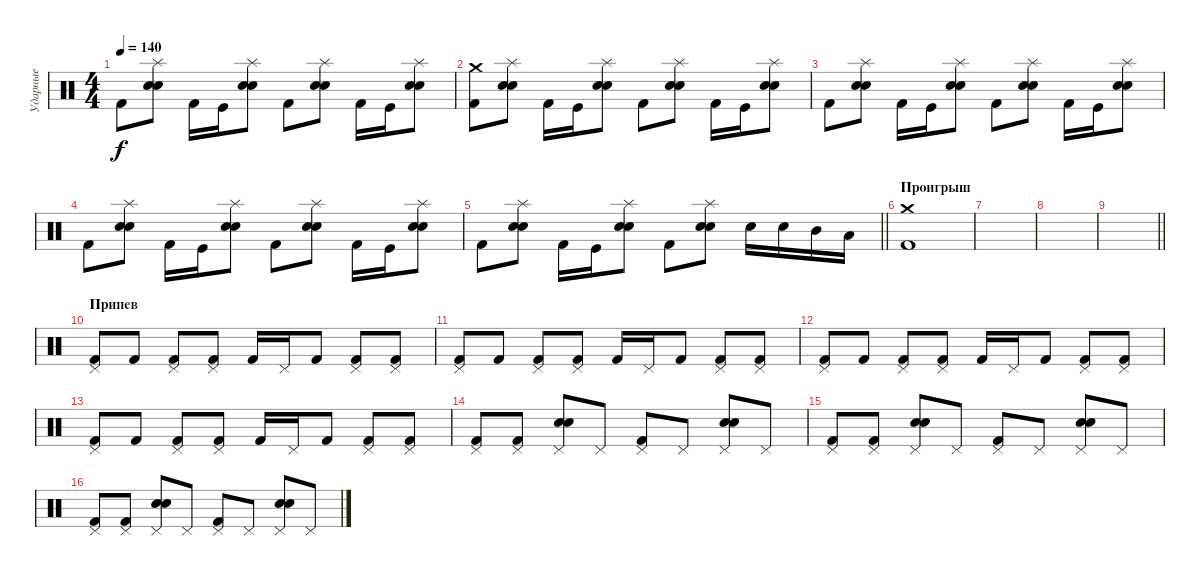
\track ("Ударные" "Ударные") {instrument percussion}
\staff {score}
\articulation defaults
\ts (4 4)
\tempo 140
\clef neutral
\ks c "Kick (hit) 2".8{dy f}
("Splash (hit)" "Electric Snare (hit)" "Snare (hit) 2").8 "Kick (hit) 2".16 "Kick (hit)".16 ("Splash (hit)" "Electric Snare (hit)" "Snare (hit) 2").8 "Kick (hit) 2".8 ("Splash (hit)" "Electric Snare (hit)" "Snare (hit) 2").8 "Kick (hit) 2".16 "Kick (hit)".16 ("Splash (hit)" "Electric Snare (hit)" "Snare (hit) 2").8 |
("Crash medium (hit)" "Kick (hit) 2").8 ("Splash (hit)" "Electric Snare (hit)" "Snare (hit) 2").8 "Kick (hit) 2".16 "Kick (hit)".16 ("Splash (hit)" "Electric Snare (hit)" "Snare (hit) 2").8 "Kick (hit) 2".8 ("Splash (hit)" "Electric Snare (hit)" "Snare (hit) 2").8 "Kick (hit) 2".16 "Kick (hit)".16 ("Splash (hit)" "Electric Snare (hit)" "Snare (hit) 2").8 |
"Kick (hit) 2".8 ("Splash (hit)" "Electric Snare (hit)" "Snare (hit) 2").8 "Kick (hit) 2".16 "Kick (hit)".16 ("Splash (hit)" "Electric Snare (hit)" "Snare (hit) 2").8 "Kick (hit) 2".8 ("Splash (hit)" "Electric Snare (hit)" "Snare (hit) 2").8 "Kick (hit) 2".16 "Kick (hit)".16 ("Splash (hit)" "Electric Snare (hit)" "Snare (hit) 2").8 |
"Kick (hit) 2".8 ("Splash (hit)" "Electric Snare (hit)" "Snare (hit) 2").8 "Kick (hit) 2".16 "Kick (hit)".16 ("Splash (hit)" "Electric Snare (hit)" "Snare (hit) 2").8 "Kick (hit) 2".8 ("Splash (hit)" "Electric Snare (hit)" "Snare (hit) 2").8 "Kick (hit) 2".16 "Kick (hit)".16 ("Splash (hit)" "Electric Snare (hit)" "Snare (hit) 2").8 |
\barLineRight lightlight "Kick (hit) 2".8
("Splash (hit)" "Electric Snare (hit)" "Snare (hit) 2").8 "Kick (hit) 2".16 "Kick (hit)".16 ("Splash (hit)" "Electric Snare (hit)" "Snare (hit) 2").8 "Kick (hit) 2".8 ("Splash (hit)" "Electric Snare (hit)" "Snare (hit) 2").8 "Electric Snare (hit)".16 "Electric Snare (hit)".16 "Mid Tom (hit)".16 "Low Tom (hit)".16 |
\section ("" "Проигрыш")
("Crash medium (hit)" "Kick (hit) 2").1 |
|
|
\barLineRight lightlight
|
\section ("" "Припев")
("Pedal Hi-Hat (hit)" "Kick (hit) 2").8 "Kick (hit) 2".8 ("Pedal Hi-Hat (hit)" "Kick (hit) 2").8 ("Pedal Hi-Hat (hit)" "Kick (hit) 2").8 "Kick (hit) 2".16 "Pedal Hi-Hat (hit)".16 "Kick (hit) 2".8 ("Pedal Hi-Hat (hit)" "Kick (hit) 2").8 ("Pedal Hi-Hat (hit)" "Kick (hit) 2").8 |
("Pedal Hi-Hat (hit)" "Kick (hit) 2").8 "Kick (hit) 2".8 ("Pedal Hi-Hat (hit)" "Kick (hit) 2").8 ("Pedal Hi-Hat (hit)" "Kick (hit) 2").8 "Kick (hit) 2".16 "Pedal Hi-Hat (hit)".16 "Kick (hit) 2".8 ("Pedal Hi-Hat (hit)" "Kick (hit) 2").8 ("Pedal Hi-Hat (hit)" "Kick (hit) 2").8 |
("Pedal Hi-Hat (hit)" "Kick (hit) 2").8 "Kick (hit) 2".8 ("Pedal Hi-Hat (hit)" "Kick (hit) 2").8 ("Pedal Hi-Hat (hit)" "Kick (hit) 2").8 "Kick (hit) 2".16 "Pedal Hi-Hat (hit)".16 "Kick (hit) 2".8 ("Pedal Hi-Hat (hit)" "Kick (hit) 2").8 ("Pedal Hi-Hat (hit)" "Kick (hit) 2").8 |
("Pedal Hi-Hat (hit)" "Kick (hit) 2").8 "Kick (hit) 2".8 ("Pedal Hi-Hat (hit)" "Kick (hit) 2").8 ("Pedal Hi-Hat (hit)" "Kick (hit) 2").8 "Kick (hit) 2".16 "Pedal Hi-Hat (hit)".16 "Kick (hit) 2".8 ("Pedal Hi-Hat (hit)" "Kick (hit) 2").8 ("Pedal Hi-Hat (hit)" "Kick (hit) 2").8 |
("Pedal Hi-Hat (hit)" "Kick (hit) 2").8 ("Pedal Hi-Hat (hit)" "Kick (hit) 2").8 ("Pedal Hi-Hat (hit)" "Electric Snare (hit)" "Snare (hit) 2").8 "Pedal Hi-Hat (hit)".8 ("Pedal Hi-Hat (hit)" "Kick (hit) 2").8 "Pedal Hi-Hat (hit)".8 ("Pedal Hi-Hat (hit)" "Electric Snare (hit)" "Snare (hit) 2").8 "Pedal Hi-Hat (hit)".8 |
("Pedal Hi-Hat (hit)" "Kick (hit) 2").8 ("Pedal Hi-Hat (hit)" "Kick (hit) 2").8 ("Pedal Hi-Hat (hit)" "Electric Snare (hit)" "Snare (hit) 2").8 "Pedal Hi-Hat (hit)".8 ("Pedal Hi-Hat (hit)" "Kick (hit) 2").8 "Pedal Hi-Hat (hit)".8 ("Pedal Hi-Hat (hit)" "Electric Snare (hit)" "Snare (hit) 2").8 "Pedal Hi-Hat (hit)".8 |
("Pedal Hi-Hat (hit)" "Kick (hit) 2").8 ("Pedal Hi-Hat (hit)" "Kick (hit) 2").8 ("Pedal Hi-Hat (hit)" "Electric Snare (hit)" "Snare (hit) 2").8 "Pedal Hi-Hat (hit)".8 ("Pedal Hi-Hat (hit)" "Kick (hit) 2").8 "Pedal Hi-Hat (hit)".8 ("Pedal Hi-Hat (hit)" "Electric Snare (hit)" "Snare (hit) 2").8 "Pedal Hi-Hat (hit)".8
